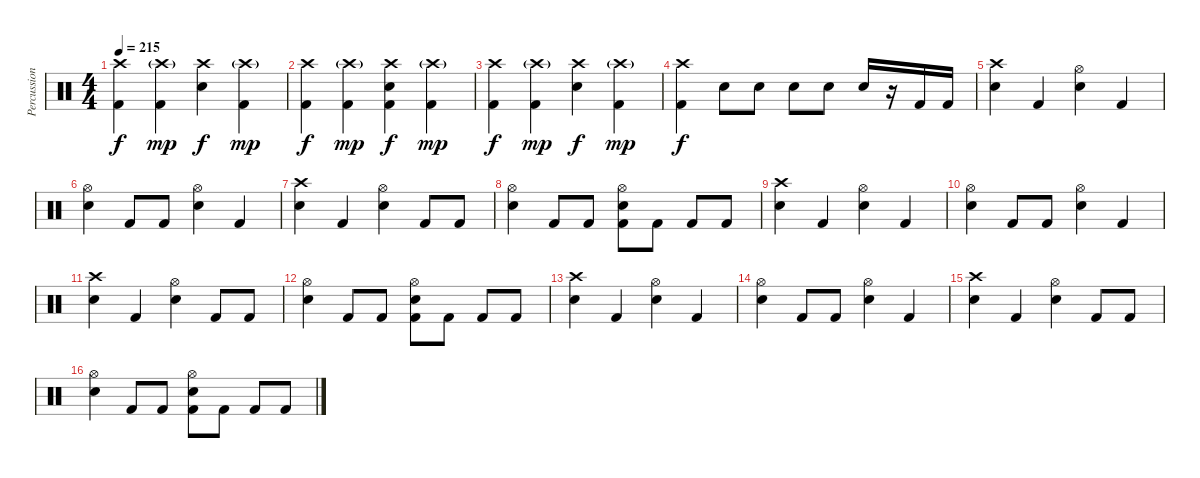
\track ("Percussion" "Percussion") {instrument percussion}
\staff {score}
\articulation defaults
\ts (4 4)
\tempo 215
\clef neutral
\ks c
("Crash high (hit)" "Kick (hit) 2").4{dy f} ("Crash high (hit)"{g} "Kick (hit) 2").4{dy mp} ("Crash high (hit)" "Electric Snare (hit)").4{dy f} ("Crash high (hit)"{g} "Kick (hit) 2").4{dy mp} |
("Crash high (hit)" "Kick (hit) 2").4{dy f} ("Crash high (hit)"{g} "Kick (hit) 2").4{dy mp} ("Crash high (hit)" "Electric Snare (hit)" "Kick (hit) 2").4{dy f} ("Crash high (hit)"{g} "Kick (hit) 2").4{dy mp} |
("Crash high (hit)" "Kick (hit) 2").4{dy f} ("Crash high (hit)"{g} "Kick (hit) 2").4{dy mp} ("Crash high (hit)" "Electric Snare (hit)").4{dy f} ("Crash high (hit)"{g} "Kick (hit) 2").4{dy mp} |
("Crash high (hit)" "Kick (hit) 2").4{dy f} "Electric Snare (hit)".8 "Electric Snare (hit)".8 "Electric Snare (hit)".8 "Electric Snare (hit)".8 "Electric Snare (hit)".16 r.16 "Kick (hit) 2".16 "Kick (hit) 2".16 |
("Crash high (hit)" "Electric Snare (hit)").4 "Kick (hit) 2".4 ("Hi-Hat (open)" "Electric Snare (hit)").4 "Kick (hit) 2".4 |
("Hi-Hat (open)" "Electric Snare (hit)").4 "Kick (hit) 2".8 "Kick (hit) 2".8 ("Hi-Hat (open)" "Electric Snare (hit)").4 "Kick (hit) 2".4 |
("Crash high (hit)" "Electric Snare (hit)").4 "Kick (hit) 2".4 ("Hi-Hat (open)" "Electric Snare (hit)").4 "Kick (hit) 2".8 "Kick (hit) 2".8 |
("Hi-Hat (open)" "Electric Snare (hit)").4 "Kick (hit) 2".8 "Kick (hit) 2".8 ("Hi-Hat (open)" "Electric Snare (hit)" "Kick (hit) 2").8 "Kick (hit) 2".8 "Kick (hit) 2".8 "Kick (hit) 2".8 |
("Crash high (hit)" "Electric Snare (hit)").4 "Kick (hit) 2".4 ("Hi-Hat (open)" "Electric Snare (hit)").4 "Kick (hit) 2".4 |
("Hi-Hat (open)" "Electric Snare (hit)").4 "Kick (hit) 2".8 "Kick (hit) 2".8 ("Hi-Hat (open)" "Electric Snare (hit)").4 "Kick (hit) 2".4 |
("Crash high (hit)" "Electric Snare (hit)").4 "Kick (hit) 2".4 ("Hi-Hat (open)" "Electric Snare (hit)").4 "Kick (hit) 2".8 "Kick (hit) 2".8 |
("Hi-Hat (open)" "Electric Snare (hit)").4 "Kick (hit) 2".8 "Kick (hit) 2".8 ("Hi-Hat (open)" "Electric Snare (hit)" "Kick (hit) 2").8 "Kick (hit) 2".8 "Kick (hit) 2".8 "Kick (hit) 2".8 |
("Crash high (hit)" "Electric Snare (hit)").4 "Kick (hit) 2".4 ("Hi-Hat (open)" "Electric Snare (hit)").4 "Kick (hit) 2".4 |
("Hi-Hat (open)" "Electric Snare (hit)").4 "Kick (hit) 2".8 "Kick (hit) 2".8 ("Hi-Hat (open)" "Electric Snare (hit)").4 "Kick (hit) 2".4 |
("Crash high (hit)" "Electric Snare (hit)").4 "Kick (hit) 2".4 ("Hi-Hat (open)" "Electric Snare (hit)").4 "Kick (hit) 2".8 "Kick (hit) 2".8 |
("Hi-Hat (open)" "Electric Snare (hit)").4 "Kick (hit) 2".8 "Kick (hit) 2".8 ("Hi-Hat (open)" "Electric Snare (hit)" "Kick (hit) 2").8 "Kick (hit) 2".8 "Kick (hit) 2".8 "Kick (hit) 2".8
